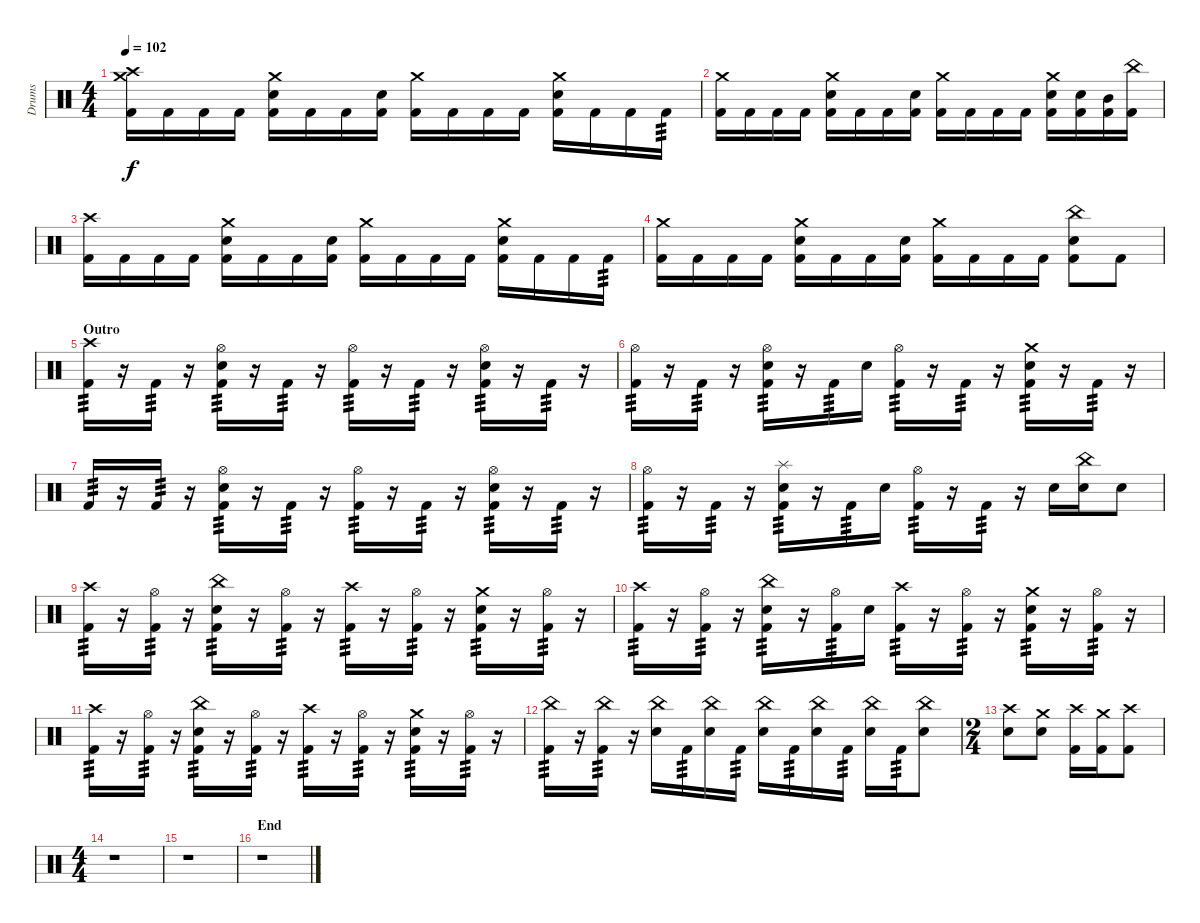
\track ("Drums" "Drums") {instrument percussion}
\staff {score}
\articulation defaults
\ts (4 4)
\tempo 102
\clef neutral
\ks c
("Crash high (hit)" "Crash medium (hit)" "Kick (hit) 2").16{dy f} "Kick (hit) 2".16 "Kick (hit) 2".16 "Kick (hit) 2".16 ("Crash medium (hit)" "Snare (hit) 2" "Kick (hit) 2").16 "Kick (hit) 2".16 "Kick (hit) 2".16 ("Snare (hit) 2" "Kick (hit) 2").16 ("Crash medium (hit)" "Kick (hit) 2").16 "Kick (hit) 2".16 "Kick (hit) 2".16 "Kick (hit) 2".16 ("Crash medium (hit)" "Snare (hit) 2" "Kick (hit) 2").16 "Kick (hit) 2".16 "Kick (hit) 2".16 "Kick (hit) 2".16{tp 3} |
("Crash medium (hit)" "Kick (hit) 2").16 "Kick (hit) 2".16 "Kick (hit) 2".16 "Kick (hit) 2".16 ("Crash medium (hit)" "Snare (hit) 2" "Kick (hit) 2").16 "Kick (hit) 2".16 "Kick (hit) 2".16 ("Snare (hit) 2" "Kick (hit) 2").16 ("Crash medium (hit)" "Kick (hit) 2").16 "Kick (hit) 2".16 "Kick (hit) 2".16 "Kick (hit) 2".16 ("Crash medium (hit)" "Snare (hit) 2" "Kick (hit) 2").16 ("Snare (hit) 2" "Kick (hit) 2").16 ("Mid Tom (hit)" "Kick (hit) 2").16 ("China (hit)" "Kick (hit) 2").16 |
("Crash high (hit)" "Kick (hit) 2").16 "Kick (hit) 2".16 "Kick (hit) 2".16 "Kick (hit) 2".16 ("Crash medium (hit)" "Snare (hit) 2" "Kick (hit) 2").16 "Kick (hit) 2".16 "Kick (hit) 2".16 ("Snare (hit) 2" "Kick (hit) 2").16 ("Crash medium (hit)" "Kick (hit) 2").16 "Kick (hit) 2".16 "Kick (hit) 2".16 "Kick (hit) 2".16 ("Crash medium (hit)" "Snare (hit) 2" "Kick (hit) 2").16 "Kick (hit) 2".16 "Kick (hit) 2".16 "Kick (hit) 2".16{tp 3} |
("Crash medium (hit)" "Kick (hit) 2").16 "Kick (hit) 2".16 "Kick (hit) 2".16 "Kick (hit) 2".16 ("Crash medium (hit)" "Snare (hit) 2" "Kick (hit) 2").16 "Kick (hit) 2".16 "Kick (hit) 2".16 ("Snare (hit) 2" "Kick (hit) 2").16 ("Crash medium (hit)" "Kick (hit) 2").16 "Kick (hit) 2".16 "Kick (hit) 2".16 "Kick (hit) 2".16 ("China (hit)" "Snare (hit) 2" "Kick (hit) 2").8 "Kick (hit) 2".8 |
\section ("" "Outro")
("Crash high (hit)" "Kick (hit) 2").16{tp 3} r.16 "Kick (hit) 2".16{tp 3} r.16 ("Hi-Hat (open)" "Snare (hit) 2" "Kick (hit) 2").16{tp 3} r.16 "Kick (hit) 2".16{tp 3} r.16 ("Hi-Hat (open)" "Kick (hit) 2").16{tp 3} r.16 "Kick (hit) 2".16{tp 3} r.16 ("Hi-Hat (open)" "Snare (hit) 2" "Kick (hit) 2").16{tp 3} r.16 "Kick (hit) 2".16{tp 3} r.16 |
("Hi-Hat (open)" "Kick (hit) 2").16{tp 3} r.16 "Kick (hit) 2".16{tp 3} r.16 ("Hi-Hat (open)" "Snare (hit) 2" "Kick (hit) 2").16{tp 3} r.16 "Kick (hit) 2".16{tp 3} "Snare (hit) 2".16 ("Hi-Hat (open)" "Kick (hit) 2").16{tp 3} r.16 "Kick (hit) 2".16{tp 3} r.16 ("Crash medium (hit)" "Snare (hit) 2" "Kick (hit) 2").16{tp 3} r.16 "Kick (hit) 2".16{tp 3} r.16 |
"Kick (hit) 2".16{tp 3} r.16 "Kick (hit) 2".16{tp 3} r.16 ("Hi-Hat (open)" "Snare (hit) 2" "Kick (hit) 2").16{tp 3} r.16 "Kick (hit) 2".16{tp 3} r.16 ("Hi-Hat (open)" "Kick (hit) 2").16{tp 3} r.16 "Kick (hit) 2".16{tp 3} r.16 ("Hi-Hat (open)" "Snare (hit) 2" "Kick (hit) 2").16{tp 3} r.16 "Kick (hit) 2".16{tp 3} r.16 |
("Hi-Hat (open)" "Kick (hit) 2").16{tp 3} r.16 "Kick (hit) 2".16{tp 3} r.16 ("Splash (hit)" "Snare (hit) 2" "Kick (hit) 2").16{tp 3} r.16 "Kick (hit) 2".16{tp 3} "Snare (hit) 2".16 ("Hi-Hat (open)" "Kick (hit) 2").16{tp 3} r.16 "Kick (hit) 2".16{tp 3} r.16 "Snare (hit) 2".16 ("China (hit)" "Snare (hit) 2").16 "Snare (hit) 2".8 |
("Crash high (hit)" "Kick (hit) 2").16{tp 3} r.16 ("Hi-Hat (open)" "Kick (hit) 2").16{tp 3} r.16 ("China (hit)" "Snare (hit) 2" "Kick (hit) 2").16{tp 3} r.16 ("Hi-Hat (open)" "Kick (hit) 2").16{tp 3} r.16 ("Crash high (hit)" "Kick (hit) 2").16{tp 3} r.16 ("Hi-Hat (open)" "Kick (hit) 2").16{tp 3} r.16 ("Crash medium (hit)" "Snare (hit) 2" "Kick (hit) 2").16{tp 3} r.16 ("Hi-Hat (open)" "Kick (hit) 2").16{tp 3} r.16 |
("Crash high (hit)" "Kick (hit) 2").16{tp 3} r.16 ("Hi-Hat (open)" "Kick (hit) 2").16{tp 3} r.16 ("China (hit)" "Snare (hit) 2" "Kick (hit) 2").16{tp 3} r.16 ("Hi-Hat (open)" "Kick (hit) 2").16{tp 3} "Snare (hit) 2".16 ("Crash high (hit)" "Kick (hit) 2").16{tp 3} r.16 ("Hi-Hat (open)" "Kick (hit) 2").16{tp 3} r.16 ("Crash medium (hit)" "Snare (hit) 2" "Kick (hit) 2").16{tp 3} r.16 ("Hi-Hat (open)" "Kick (hit) 2").16{tp 3} r.16 |
("Crash high (hit)" "Kick (hit) 2").16{tp 3} r.16 ("Hi-Hat (open)" "Kick (hit) 2").16{tp 3} r.16 ("China (hit)" "Snare (hit) 2" "Kick (hit) 2").16{tp 3} r.16 ("Hi-Hat (open)" "Kick (hit) 2").16{tp 3} r.16 ("Crash high (hit)" "Kick (hit) 2").16{tp 3} r.16 ("Hi-Hat (open)" "Kick (hit) 2").16{tp 3} r.16 ("Crash medium (hit)" "Snare (hit) 2" "Kick (hit) 2").16{tp 3} r.16 ("Hi-Hat (open)" "Kick (hit) 2").16{tp 3} r.16 |
("China (hit)" "Kick (hit) 2").16{tp 3} r.16 ("China (hit)" "Kick (hit) 2").16{tp 3} r.16 ("China (hit)" "Snare (hit) 2").16 "Kick (hit) 2".16{tp 3} ("China (hit)" "Snare (hit) 2").16 "Kick (hit) 2".16{tp 3} ("China (hit)" "Snare (hit) 2").16 "Kick (hit) 2".16{tp 3} ("China (hit)" "Snare (hit) 2").16 "Kick (hit) 2".16{tp 3} ("China (hit)" "Snare (hit) 2").16 "Kick (hit) 2".16{tp 3} ("China (hit)" "Snare (hit) 2").8 |
\ts (2 4)
("Crash high (hit)" "Snare (hit) 2").8 ("Crash medium (hit)" "Snare (hit) 2").8 ("Crash high (hit)" "Kick (hit) 2").16 ("Crash medium (hit)" "Kick (hit) 2").16 ("Crash high (hit)" "Kick (hit) 2").8 |
\ts (4 4)
r.1 |
r.1 |
\section ("" "End")
r.1
